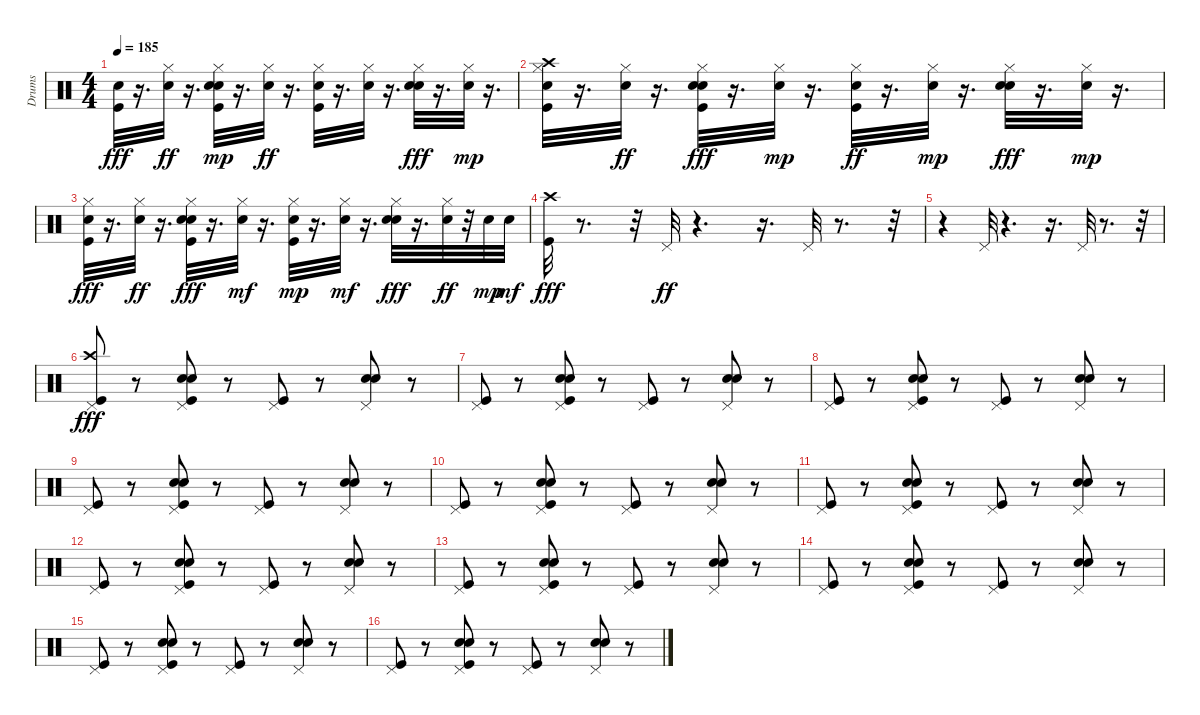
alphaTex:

\track ("Drums" "Drums") {instrument percussion}
\staff {score}
\articulation defaults
\ts (4 4)
\tempo 185
\clef neutral
\ks c
("Snare (hit) 2" "Kick (hit)").32{dy fff} r.16{d} ("Snare (hit) 2" "Hi-Hat (closed)").32{dy ff} r.16{d} ("Hi-Hat (closed)" "Hand Clap (hit)" "Kick (hit)" "Snare (hit) 2").32{dy mp} r.16{d} ("Snare (hit) 2" "Hi-Hat (closed)").32{dy ff} r.16{d} ("Kick (hit)" "Snare (hit) 2" "Hi-Hat (closed)").32 r.16{d} ("Snare (hit) 2" "Hi-Hat (closed)").32 r.16{d} ("Hi-Hat (closed)" "Snare (hit) 2" "Hand Clap (hit)").32{dy fff} r.16{d} ("Hi-Hat (closed)" "Snare (hit) 2").32{dy mp} r.16{d} |
("Kick (hit)" "Crash high (hit)" "Hi-Hat (closed)" "Snare (hit) 2").32 r.16{d} ("Snare (hit) 2" "Hi-Hat (closed)").32{dy ff} r.16{d} ("Hi-Hat (closed)" "Snare (hit) 2" "Kick (hit)" "Hand Clap (hit)").32{dy fff} r.16{d} ("Hi-Hat (closed)" "Snare (hit) 2").32{dy mp} r.16{d} ("Kick (hit)" "Snare (hit) 2" "Hi-Hat (closed)").32{dy ff} r.16{d} ("Hi-Hat (closed)" "Snare (hit) 2").32{dy mp} r.16{d} ("Hi-Hat (closed)" "Snare (hit) 2" "Hand Clap (hit)").32{dy fff} r.16{d} ("Hi-Hat (closed)" "Snare (hit) 2").32{dy mp} r.16{d} |
("Snare (hit) 2" "Hi-Hat (closed)" "Kick (hit)").32{dy fff} r.16{d} ("Snare (hit) 2" "Hi-Hat (closed)").32{dy ff} r.16{d} ("Hand Clap (hit)" "Snare (hit) 2" "Kick (hit)" "Hi-Hat (closed)").32{dy fff} r.16{d} ("Hi-Hat (closed)" "Snare (hit) 2").32{dy mf} r.16{d} ("Hi-Hat (closed)" "Kick (hit)" "Snare (hit) 2").32{dy mp} r.16{d} ("Hi-Hat (closed)" "Snare (hit) 2").32{dy mf} r.16{d} ("Hand Clap (hit)" "Hi-Hat (closed)" "Snare (hit) 2").32{dy fff} r.16{d} ("Snare (hit) 2" "Hi-Hat (closed)").32{dy ff} r.32 "Snare (hit) 2".32{dy mp} "Snare (hit) 2".32{dy mf} |
("Kick (hit)" "Crash high (hit)").32{dy fff} r.8{d} r.32 "Pedal Hi-Hat (hit)".32{dy ff} r.4{d} r.16{d} "Pedal Hi-Hat (hit)".32 r.8{d} r.32 |
r.4 "Pedal Hi-Hat (hit)".32 r.4{d} r.16{d} "Pedal Hi-Hat (hit)".32 r.8{d} r.32 |
("Pedal Hi-Hat (hit)" "Crash high (hit)" "Kick (hit)").8{dy fff} r.8 ("Pedal Hi-Hat (hit)" "Kick (hit)" "Hand Clap (hit)" "Snare (hit) 2").8 r.8 ("Pedal Hi-Hat (hit)" "Kick (hit)").8 r.8 ("Snare (hit) 2" "Pedal Hi-Hat (hit)" "Hand Clap (hit)").8 r.8 |
("Pedal Hi-Hat (hit)" "Kick (hit)").8 r.8 ("Pedal Hi-Hat (hit)" "Kick (hit)" "Hand Clap (hit)" "Snare (hit) 2").8 r.8 ("Pedal Hi-Hat (hit)" "Kick (hit)").8 r.8 ("Snare (hit) 2" "Pedal Hi-Hat (hit)" "Hand Clap (hit)").8 r.8 |
("Pedal Hi-Hat (hit)" "Kick (hit)").8 r.8 ("Pedal Hi-Hat (hit)" "Kick (hit)" "Hand Clap (hit)" "Snare (hit) 2").8 r.8 ("Pedal Hi-Hat (hit)" "Kick (hit)").8 r.8 ("Snare (hit) 2" "Pedal Hi-Hat (hit)" "Hand Clap (hit)").8 r.8 |
("Pedal Hi-Hat (hit)" "Kick (hit)").8 r.8 ("Pedal Hi-Hat (hit)" "Kick (hit)" "Hand Clap (hit)" "Snare (hit) 2").8 r.8 ("Pedal Hi-Hat (hit)" "Kick (hit)").8 r.8 ("Snare (hit) 2" "Pedal Hi-Hat (hit)" "Hand Clap (hit)").8 r.8 |
("Pedal Hi-Hat (hit)" "Kick (hit)").8 r.8 ("Pedal Hi-Hat (hit)" "Kick (hit)" "Hand Clap (hit)" "Snare (hit) 2").8 r.8 ("Pedal Hi-Hat (hit)" "Kick (hit)").8 r.8 ("Snare (hit) 2" "Pedal Hi-Hat (hit)" "Hand Clap (hit)").8 r.8 |
("Pedal Hi-Hat (hit)" "Kick (hit)").8 r.8 ("Pedal Hi-Hat (hit)" "Kick (hit)" "Hand Clap (hit)" "Snare (hit) 2").8 r.8 ("Pedal Hi-Hat (hit)" "Kick (hit)").8 r.8 ("Snare (hit) 2" "Pedal Hi-Hat (hit)" "Hand Clap (hit)").8 r.8 |
("Pedal Hi-Hat (hit)" "Kick (hit)").8 r.8 ("Pedal Hi-Hat (hit)" "Kick (hit)" "Hand Clap (hit)" "Snare (hit) 2").8 r.8 ("Pedal Hi-Hat (hit)" "Kick (hit)").8 r.8 ("Snare (hit) 2" "Pedal Hi-Hat (hit)" "Hand Clap (hit)").8 r.8 |
("Pedal Hi-Hat (hit)" "Kick (hit)").8 r.8 ("Pedal Hi-Hat (hit)" "Kick (hit)" "Hand Clap (hit)" "Snare (hit) 2").8 r.8 ("Pedal Hi-Hat (hit)" "Kick (hit)").8 r.8 ("Snare (hit) 2" "Pedal Hi-Hat (hit)" "Hand Clap (hit)").8 r.8 |
("Pedal Hi-Hat (hit)" "Kick (hit)").8 r.8 ("Pedal Hi-Hat (hit)" "Kick (hit)" "Hand Clap (hit)" "Snare (hit) 2").8 r.8 ("Pedal Hi-Hat (hit)" "Kick (hit)").8 r.8 ("Snare (hit) 2" "Pedal Hi-Hat (hit)" "Hand Clap (hit)").8 r.8 |
("Pedal Hi-Hat (hit)" "Kick (hit)").8 r.8 ("Pedal Hi-Hat (hit)" "Kick (hit)" "Hand Clap (hit)" "Snare (hit) 2").8 r.8 ("Pedal Hi-Hat (hit)" "Kick (hit)").8 r.8 ("Snare (hit) 2" "Pedal Hi-Hat (hit)" "Hand Clap (hit)").8 r.8 |
("Pedal Hi-Hat (hit)" "Kick (hit)").8 r.8 ("Pedal Hi-Hat (hit)" "Kick (hit)" "Hand Clap (hit)" "Snare (hit) 2").8 r.8 ("Pedal Hi-Hat (hit)" "Kick (hit)").8 r.8 ("Snare (hit) 2" "Pedal Hi-Hat (hit)" "Hand Clap (hit)").8 r.8
